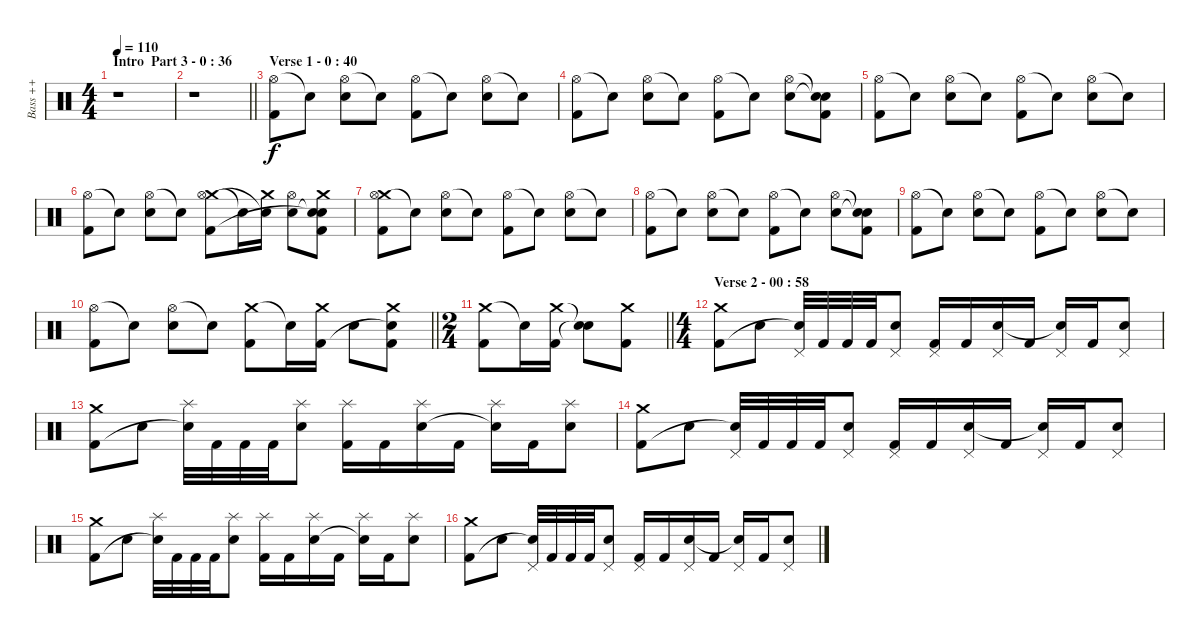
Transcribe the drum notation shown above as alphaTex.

\track ("  Bass ++" "  Bass ++") {instrument percussion}
\staff {score}
\articulation defaults
\ts (4 4)
\section ("" "Intro  Part 3 - 0 : 36")
\tempo 110
\clef neutral
\ks c
r.1{dy f} |
\barLineRight lightlight
r.1 |
\section ("" "Verse 1 - 0 : 40")
("Hi-Hat (open)" "Kick (hit) 2").8 "Snare (hit)"{t}.8 ("Hi-Hat (open)" "Snare (hit) 2").8 "Snare (hit)"{t}.8 ("Hi-Hat (open)" "Kick (hit) 2").8 "Snare (hit)"{t}.8 ("Hi-Hat (open)" "Snare (hit) 2").8 "Snare (hit)"{t}.8 |
("Hi-Hat (open)" "Kick (hit) 2").8 "Snare (hit)"{t}.8 ("Hi-Hat (open)" "Snare (hit) 2").8 "Snare (hit)"{t}.8 ("Hi-Hat (open)" "Kick (hit) 2").8 "Snare (hit)"{t}.8 ("Hi-Hat (open)" "Snare (hit) 2").8 ("Snare (hit)"{t} "Snare (hit)"{t} "Kick (hit) 2").8 |
("Hi-Hat (open)" "Kick (hit) 2").8 "Snare (hit)"{t}.8 ("Hi-Hat (open)" "Snare (hit) 2").8 "Snare (hit)"{t}.8 ("Hi-Hat (open)" "Kick (hit) 2").8 "Snare (hit)"{t}.8 ("Hi-Hat (open)" "Snare (hit) 2").8 "Snare (hit)"{t}.8 |
("Hi-Hat (open)" "Kick (hit) 2").8 "Snare (hit)"{t}.8 ("Hi-Hat (open)" "Snare (hit) 2").8 "Snare (hit)"{t}.8 ("Crash medium (hit)" "Hi-Hat (open)" "Kick (hit) 2").8 "Snare (hit)"{t}.16 ("Crash medium (hit)" "Snare (hit)"{t}).16 ("Hi-Hat (open)" "Snare (hit) 2").8 ("Crash medium (hit)" "Snare (hit)"{t} "Snare (hit)"{t} "Kick (hit) 2").8 |
("Crash medium (hit)" "Hi-Hat (open)" "Kick (hit) 2").8 "Snare (hit)"{t}.8 ("Hi-Hat (open)" "Snare (hit) 2").8 "Snare (hit)"{t}.8 ("Hi-Hat (open)" "Kick (hit) 2").8 "Snare (hit)"{t}.8 ("Hi-Hat (open)" "Snare (hit) 2").8 "Snare (hit)"{t}.8 |
("Hi-Hat (open)" "Kick (hit) 2").8 "Snare (hit)"{t}.8 ("Hi-Hat (open)" "Snare (hit) 2").8 "Snare (hit)"{t}.8 ("Hi-Hat (open)" "Kick (hit) 2").8 "Snare (hit)"{t}.8 ("Hi-Hat (open)" "Snare (hit) 2").8 ("Snare (hit)"{t} "Snare (hit)"{t} "Kick (hit) 2").8 |
("Hi-Hat (open)" "Kick (hit) 2").8 "Snare (hit)"{t}.8 ("Hi-Hat (open)" "Snare (hit) 2").8 "Snare (hit)"{t}.8 ("Hi-Hat (open)" "Kick (hit) 2").8 "Snare (hit)"{t}.8 ("Hi-Hat (open)" "Snare (hit) 2").8 "Snare (hit)"{t}.8 |
\barLineRight lightlight
("Hi-Hat (open)" "Kick (hit) 2").8 "Snare (hit)"{t}.8 ("Hi-Hat (open)" "Snare (hit) 2").8 "Snare (hit)"{t}.8 ("Crash medium (hit)" "Kick (hit) 2").8 "Snare (hit)"{t}.16 ("Crash medium (hit)" "Kick (hit) 2").16 "Snare (hit) 2".8 ("Crash medium (hit)" "Snare (hit)"{t} "Kick (hit) 2").8 |
\ts (2 4)
\barLineRight lightlight
("Crash medium (hit)" "Kick (hit) 2").8 "Snare (hit)"{t}.16 ("Crash medium (hit)" "Kick (hit) 2").16 ("Snare (hit)"{t} "Snare (hit)"{t}).8 ("Crash medium (hit)" "Kick (hit) 2").8 |
\ts (4 4)
\section ("" "Verse 2 - 00 : 58")
("Crash medium (hit)" "Kick (hit) 2").8 "Snare (hit) 2".8 ("Pedal Hi-Hat (hit)" "Snare (hit)"{t}).32 "Kick (hit) 2".32 "Kick (hit) 2".32 "Kick (hit) 2".32 ("Pedal Hi-Hat (hit)" "Snare (hit) 2").8 ("Pedal Hi-Hat (hit)" "Kick (hit) 2").16 "Kick (hit) 2".16 ("Pedal Hi-Hat (hit)" "Snare (hit) 2").16 "Kick (hit) 2".16 ("Pedal Hi-Hat (hit)" "Snare (hit)"{t}).16 "Kick (hit) 2".16 ("Pedal Hi-Hat (hit)" "Snare (hit) 2").8 |
("Crash medium (hit)" "Kick (hit) 2").8 "Snare (hit) 2".8 ("Splash (hit)" "Snare (hit)"{t}).32 "Kick (hit) 2".32 "Kick (hit) 2".32 "Kick (hit) 2".32 ("Splash (hit)" "Snare (hit) 2").8 ("Splash (hit)" "Kick (hit) 2").16 "Kick (hit) 2".16 ("Splash (hit)" "Snare (hit) 2").16 "Kick (hit) 2".16 ("Splash (hit)" "Snare (hit)"{t}).16 "Kick (hit) 2".16 ("Splash (hit)" "Snare (hit) 2").8 |
("Crash medium (hit)" "Kick (hit) 2").8 "Snare (hit) 2".8 ("Pedal Hi-Hat (hit)" "Snare (hit)"{t}).32 "Kick (hit) 2".32 "Kick (hit) 2".32 "Kick (hit) 2".32 ("Pedal Hi-Hat (hit)" "Snare (hit) 2").8 ("Pedal Hi-Hat (hit)" "Kick (hit) 2").16 "Kick (hit) 2".16 ("Pedal Hi-Hat (hit)" "Snare (hit) 2").16 "Kick (hit) 2".16 ("Pedal Hi-Hat (hit)" "Snare (hit)"{t}).16 "Kick (hit) 2".16 ("Pedal Hi-Hat (hit)" "Snare (hit) 2").8 |
("Crash medium (hit)" "Kick (hit) 2").8 "Snare (hit) 2".8 ("Splash (hit)" "Snare (hit)"{t}).32 "Kick (hit) 2".32 "Kick (hit) 2".32 "Kick (hit) 2".32 ("Splash (hit)" "Snare (hit) 2").8 ("Splash (hit)" "Kick (hit) 2").16 "Kick (hit) 2".16 ("Splash (hit)" "Snare (hit) 2").16 "Kick (hit) 2".16 ("Splash (hit)" "Snare (hit)"{t}).16 "Kick (hit) 2".16 ("Splash (hit)" "Snare (hit) 2").8 |
("Crash medium (hit)" "Kick (hit) 2").8 "Snare (hit) 2".8 ("Pedal Hi-Hat (hit)" "Snare (hit)"{t}).32 "Kick (hit) 2".32 "Kick (hit) 2".32 "Kick (hit) 2".32 ("Pedal Hi-Hat (hit)" "Snare (hit) 2").8 ("Pedal Hi-Hat (hit)" "Kick (hit) 2").16 "Kick (hit) 2".16 ("Pedal Hi-Hat (hit)" "Snare (hit) 2").16 "Kick (hit) 2".16 ("Pedal Hi-Hat (hit)" "Snare (hit)"{t}).16 "Kick (hit) 2".16 ("Pedal Hi-Hat (hit)" "Snare (hit) 2").8
